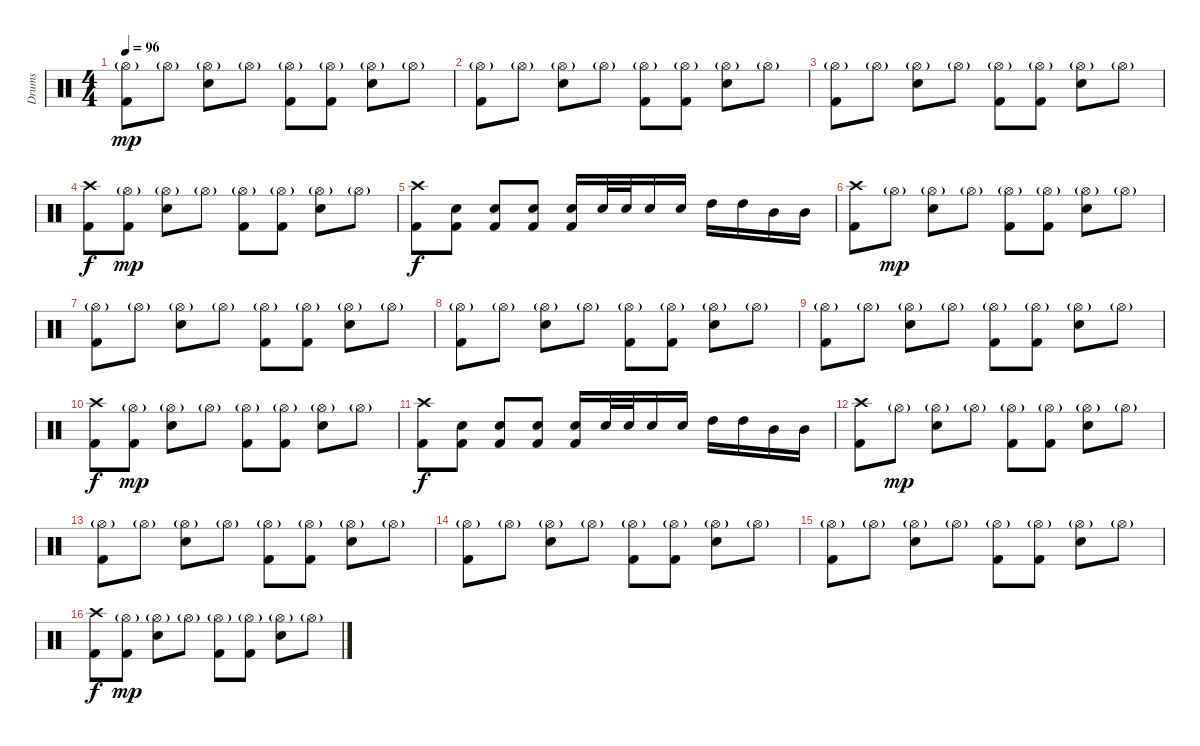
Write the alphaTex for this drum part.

\track ("Drums" "Drums") {instrument percussion}
\staff {score}
\articulation defaults
\ts (4 4)
\tempo 96
\clef neutral
\ks c
("Hi-Hat (open)"{g} "Kick (hit) 2").8{dy mp} "Hi-Hat (open)"{g}.8 ("Hi-Hat (open)"{g} "Electric Snare (hit)").8 "Hi-Hat (open)"{g}.8 ("Hi-Hat (open)"{g} "Kick (hit) 2").8 ("Hi-Hat (open)"{g} "Kick (hit) 2").8 ("Hi-Hat (open)"{g} "Electric Snare (hit)").8 "Hi-Hat (open)"{g}.8 |
("Hi-Hat (open)"{g} "Kick (hit) 2").8 "Hi-Hat (open)"{g}.8 ("Hi-Hat (open)"{g} "Electric Snare (hit)").8 "Hi-Hat (open)"{g}.8 ("Hi-Hat (open)"{g} "Kick (hit) 2").8 ("Hi-Hat (open)"{g} "Kick (hit) 2").8 ("Hi-Hat (open)"{g} "Electric Snare (hit)").8 "Hi-Hat (open)"{g}.8 |
("Hi-Hat (open)"{g} "Kick (hit) 2").8 "Hi-Hat (open)"{g}.8 ("Hi-Hat (open)"{g} "Electric Snare (hit)").8 "Hi-Hat (open)"{g}.8 ("Hi-Hat (open)"{g} "Kick (hit) 2").8 ("Hi-Hat (open)"{g} "Kick (hit) 2").8 ("Hi-Hat (open)"{g} "Electric Snare (hit)").8 "Hi-Hat (open)"{g}.8 |
("Crash high (hit)" "Kick (hit) 2").8{dy f} ("Hi-Hat (open)"{g} "Kick (hit) 2").8{dy mp} ("Hi-Hat (open)"{g} "Electric Snare (hit)").8 "Hi-Hat (open)"{g}.8 ("Hi-Hat (open)"{g} "Kick (hit) 2").8 ("Hi-Hat (open)"{g} "Kick (hit) 2").8 ("Hi-Hat (open)"{g} "Electric Snare (hit)").8 "Hi-Hat (open)"{g}.8 |
("Crash high (hit)" "Kick (hit) 2").8{dy f} ("Electric Snare (hit)" "Kick (hit) 2").8 ("Electric Snare (hit)" "Kick (hit) 2").8 ("Electric Snare (hit)" "Kick (hit) 2").8 ("Electric Snare (hit)" "Kick (hit) 2").16 "Electric Snare (hit)".32 "Electric Snare (hit)".32 "Electric Snare (hit)".16 "Electric Snare (hit)".16 "High Tom (hit)".16 "High Tom (hit)".16 "Mid Tom (hit)".16 "Mid Tom (hit)".16 |
("Crash high (hit)" "Kick (hit) 2").8 "Hi-Hat (open)"{g}.8{dy mp} ("Hi-Hat (open)"{g} "Electric Snare (hit)").8 "Hi-Hat (open)"{g}.8 ("Hi-Hat (open)"{g} "Kick (hit) 2").8 ("Hi-Hat (open)"{g} "Kick (hit) 2").8 ("Hi-Hat (open)"{g} "Electric Snare (hit)").8 "Hi-Hat (open)"{g}.8 |
("Hi-Hat (open)"{g} "Kick (hit) 2").8 "Hi-Hat (open)"{g}.8 ("Hi-Hat (open)"{g} "Electric Snare (hit)").8 "Hi-Hat (open)"{g}.8 ("Hi-Hat (open)"{g} "Kick (hit) 2").8 ("Hi-Hat (open)"{g} "Kick (hit) 2").8 ("Hi-Hat (open)"{g} "Electric Snare (hit)").8 "Hi-Hat (open)"{g}.8 |
("Hi-Hat (open)"{g} "Kick (hit) 2").8 "Hi-Hat (open)"{g}.8 ("Hi-Hat (open)"{g} "Electric Snare (hit)").8 "Hi-Hat (open)"{g}.8 ("Hi-Hat (open)"{g} "Kick (hit) 2").8 ("Hi-Hat (open)"{g} "Kick (hit) 2").8 ("Hi-Hat (open)"{g} "Electric Snare (hit)").8 "Hi-Hat (open)"{g}.8 |
("Hi-Hat (open)"{g} "Kick (hit) 2").8 "Hi-Hat (open)"{g}.8 ("Hi-Hat (open)"{g} "Electric Snare (hit)").8 "Hi-Hat (open)"{g}.8 ("Hi-Hat (open)"{g} "Kick (hit) 2").8 ("Hi-Hat (open)"{g} "Kick (hit) 2").8 ("Hi-Hat (open)"{g} "Electric Snare (hit)").8 "Hi-Hat (open)"{g}.8 |
("Crash high (hit)" "Kick (hit) 2").8{dy f} ("Hi-Hat (open)"{g} "Kick (hit) 2").8{dy mp} ("Hi-Hat (open)"{g} "Electric Snare (hit)").8 "Hi-Hat (open)"{g}.8 ("Hi-Hat (open)"{g} "Kick (hit) 2").8 ("Hi-Hat (open)"{g} "Kick (hit) 2").8 ("Hi-Hat (open)"{g} "Electric Snare (hit)").8 "Hi-Hat (open)"{g}.8 |
("Crash high (hit)" "Kick (hit) 2").8{dy f} ("Electric Snare (hit)" "Kick (hit) 2").8 ("Electric Snare (hit)" "Kick (hit) 2").8 ("Electric Snare (hit)" "Kick (hit) 2").8 ("Electric Snare (hit)" "Kick (hit) 2").16 "Electric Snare (hit)".32 "Electric Snare (hit)".32 "Electric Snare (hit)".16 "Electric Snare (hit)".16 "High Tom (hit)".16 "High Tom (hit)".16 "Mid Tom (hit)".16 "Mid Tom (hit)".16 |
("Crash high (hit)" "Kick (hit) 2").8 "Hi-Hat (open)"{g}.8{dy mp} ("Hi-Hat (open)"{g} "Electric Snare (hit)").8 "Hi-Hat (open)"{g}.8 ("Hi-Hat (open)"{g} "Kick (hit) 2").8 ("Hi-Hat (open)"{g} "Kick (hit) 2").8 ("Hi-Hat (open)"{g} "Electric Snare (hit)").8 "Hi-Hat (open)"{g}.8 |
("Hi-Hat (open)"{g} "Kick (hit) 2").8 "Hi-Hat (open)"{g}.8 ("Hi-Hat (open)"{g} "Electric Snare (hit)").8 "Hi-Hat (open)"{g}.8 ("Hi-Hat (open)"{g} "Kick (hit) 2").8 ("Hi-Hat (open)"{g} "Kick (hit) 2").8 ("Hi-Hat (open)"{g} "Electric Snare (hit)").8 "Hi-Hat (open)"{g}.8 |
("Hi-Hat (open)"{g} "Kick (hit) 2").8 "Hi-Hat (open)"{g}.8 ("Hi-Hat (open)"{g} "Electric Snare (hit)").8 "Hi-Hat (open)"{g}.8 ("Hi-Hat (open)"{g} "Kick (hit) 2").8 ("Hi-Hat (open)"{g} "Kick (hit) 2").8 ("Hi-Hat (open)"{g} "Electric Snare (hit)").8 "Hi-Hat (open)"{g}.8 |
("Hi-Hat (open)"{g} "Kick (hit) 2").8 "Hi-Hat (open)"{g}.8 ("Hi-Hat (open)"{g} "Electric Snare (hit)").8 "Hi-Hat (open)"{g}.8 ("Hi-Hat (open)"{g} "Kick (hit) 2").8 ("Hi-Hat (open)"{g} "Kick (hit) 2").8 ("Hi-Hat (open)"{g} "Electric Snare (hit)").8 "Hi-Hat (open)"{g}.8 |
("Crash high (hit)" "Kick (hit) 2").8{dy f} ("Hi-Hat (open)"{g} "Kick (hit) 2").8{dy mp} ("Hi-Hat (open)"{g} "Electric Snare (hit)").8 "Hi-Hat (open)"{g}.8 ("Hi-Hat (open)"{g} "Kick (hit) 2").8 ("Hi-Hat (open)"{g} "Kick (hit) 2").8 ("Hi-Hat (open)"{g} "Electric Snare (hit)").8 "Hi-Hat (open)"{g}.8
